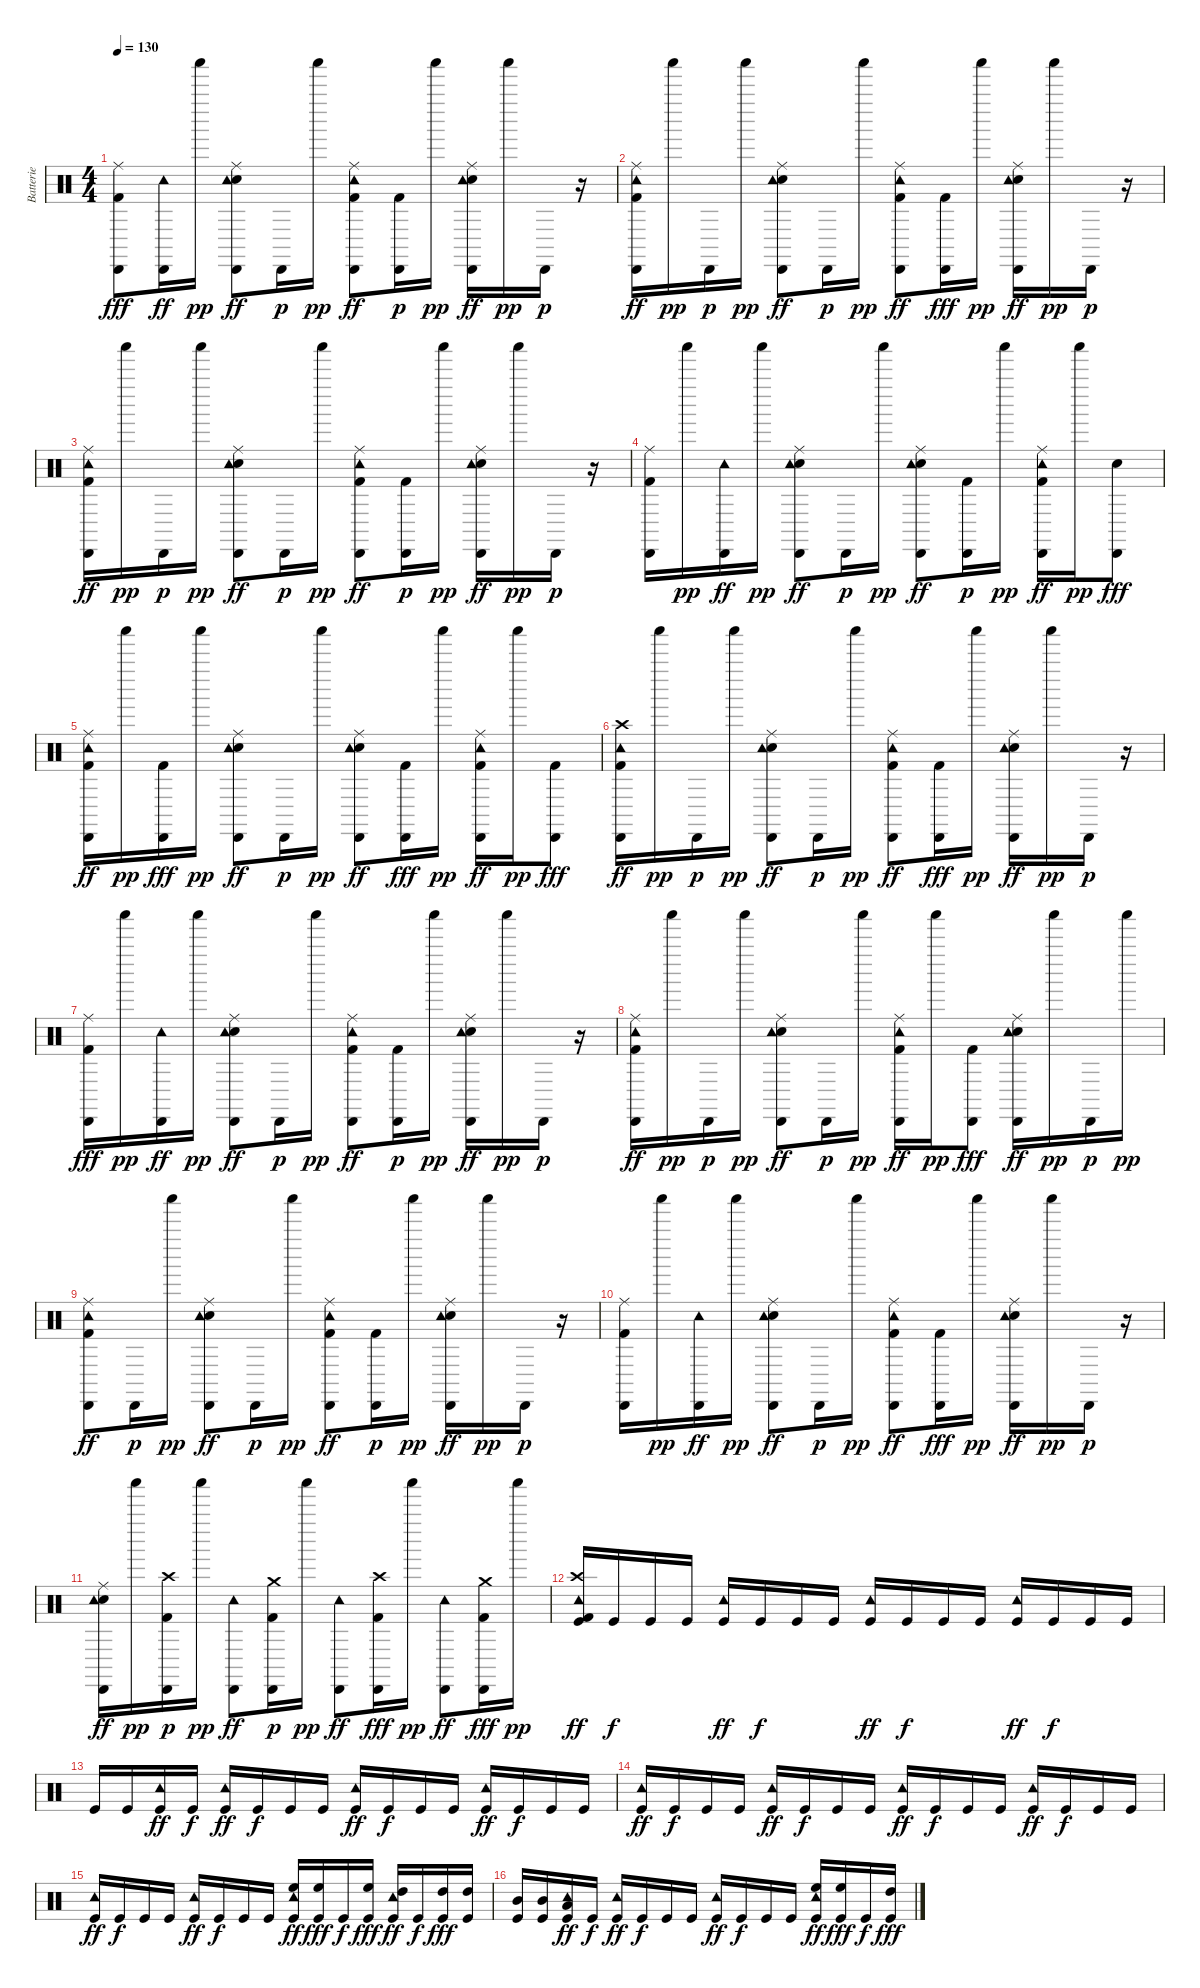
\track ("Batterie" "Batterie") {instrument percussion}
\staff {score}
\articulation defaults
\ts (4 4)
\tempo 130
\clef neutral
\ks c
("Cabasa (hit)" "Kick (hit) 2" "Ride (middle)").8{dy fff} ("Cabasa (hit)" "Tambourine (hit)").16{dy ff} "Shaker (hit)".16{dy pp} ("Ride (middle)" "Snare (hit) 2" "Cabasa (hit)" "Tambourine (hit)").8{dy ff} "Cabasa (hit)".16{dy p} "Shaker (hit)".16{dy pp} ("Ride (middle)" "Kick (hit) 2" "Cabasa (hit)" "Tambourine (hit)").8{dy ff} ("Kick (hit) 2" "Cabasa (hit)").16{dy p} "Shaker (hit)".16{dy pp} ("Snare (hit) 2" "Ride (middle)" "Cabasa (hit)" "Tambourine (hit)").16{dy ff} "Shaker (hit)".16{dy pp} "Cabasa (hit)".16{dy p} r.16 |
("Ride (middle)" "Kick (hit) 2" "Cabasa (hit)" "Tambourine (hit)").16{dy ff} "Shaker (hit)".16{dy pp} "Cabasa (hit)".16{dy p} "Shaker (hit)".16{dy pp} ("Cabasa (hit)" "Snare (hit) 2" "Ride (middle)" "Tambourine (hit)").8{dy ff} "Cabasa (hit)".16{dy p} "Shaker (hit)".16{dy pp} ("Cabasa (hit)" "Kick (hit) 2" "Ride (middle)" "Tambourine (hit)").8{dy ff} ("Cabasa (hit)" "Kick (hit) 2").16{dy fff} "Shaker (hit)".16{dy pp} ("Cabasa (hit)" "Snare (hit) 2" "Ride (middle)" "Tambourine (hit)").16{dy ff} "Shaker (hit)".16{dy pp} "Cabasa (hit)".16{dy p} r.16 |
("Kick (hit) 2" "Ride (middle)" "Cabasa (hit)" "Tambourine (hit)").16{dy ff} "Shaker (hit)".16{dy pp} "Cabasa (hit)".16{dy p} "Shaker (hit)".16{dy pp} ("Snare (hit) 2" "Ride (middle)" "Cabasa (hit)" "Tambourine (hit)").8{dy ff} "Cabasa (hit)".16{dy p} "Shaker (hit)".16{dy pp} ("Kick (hit) 2" "Ride (middle)" "Cabasa (hit)" "Tambourine (hit)").8{dy ff} ("Kick (hit) 2" "Cabasa (hit)").16{dy p} "Shaker (hit)".16{dy pp} ("Cabasa (hit)" "Snare (hit) 2" "Ride (middle)" "Tambourine (hit)").16{dy ff} "Shaker (hit)".16{dy pp} "Cabasa (hit)".16{dy p} r.16 |
("Kick (hit) 2" "Ride (middle)" "Cabasa (hit)").16 "Shaker (hit)".16{dy pp} ("Cabasa (hit)" "Tambourine (hit)").16{dy ff} "Shaker (hit)".16{dy pp} ("Cabasa (hit)" "Ride (middle)" "Snare (hit) 2" "Tambourine (hit)").8{dy ff} "Cabasa (hit)".16{dy p} "Shaker (hit)".16{dy pp} ("Snare (hit) 2" "Ride (middle)" "Cabasa (hit)" "Tambourine (hit)").8{dy ff} ("Kick (hit) 2" "Cabasa (hit)").16{dy p} "Shaker (hit)".16{dy pp} ("Cabasa (hit)" "Ride (middle)" "Kick (hit) 2" "Tambourine (hit)").16{dy ff} "Shaker (hit)".16{dy pp} ("Cabasa (hit)" "Snare (hit) 2").8{dy fff} |
("Cabasa (hit)" "Kick (hit) 2" "Ride (middle)" "Tambourine (hit)").16{dy ff} "Shaker (hit)".16{dy pp} ("Cabasa (hit)" "Kick (hit) 2").16{dy fff} "Shaker (hit)".16{dy pp} ("Cabasa (hit)" "Ride (middle)" "Snare (hit) 2" "Tambourine (hit)").8{dy ff} "Cabasa (hit)".16{dy p} "Shaker (hit)".16{dy pp} ("Ride (middle)" "Snare (hit) 2" "Cabasa (hit)" "Tambourine (hit)").8{dy ff} ("Cabasa (hit)" "Kick (hit) 2").16{dy fff} "Shaker (hit)".16{dy pp} ("Ride (middle)" "Kick (hit) 2" "Cabasa (hit)" "Tambourine (hit)").16{dy ff} "Shaker (hit)".16{dy pp} ("Cabasa (hit)" "Kick (hit) 2").8{dy fff} |
("Cabasa (hit)" "Kick (hit) 2" "Crash high (hit)" "Tambourine (hit)").16{dy ff} "Shaker (hit)".16{dy pp} "Cabasa (hit)".16{dy p} "Shaker (hit)".16{dy pp} ("Cabasa (hit)" "Snare (hit) 2" "Ride (middle)" "Tambourine (hit)").8{dy ff} "Cabasa (hit)".16{dy p} "Shaker (hit)".16{dy pp} ("Cabasa (hit)" "Kick (hit) 2" "Ride (middle)" "Tambourine (hit)").8{dy ff} ("Cabasa (hit)" "Kick (hit) 2").16{dy fff} "Shaker (hit)".16{dy pp} ("Cabasa (hit)" "Ride (middle)" "Snare (hit) 2" "Tambourine (hit)").16{dy ff} "Shaker (hit)".16{dy pp} "Cabasa (hit)".16{dy p} r.16 |
("Cabasa (hit)" "Kick (hit) 2" "Ride (middle)").16{dy fff} "Shaker (hit)".16{dy pp} ("Cabasa (hit)" "Tambourine (hit)").16{dy ff} "Shaker (hit)".16{dy pp} ("Cabasa (hit)" "Ride (middle)" "Snare (hit) 2" "Tambourine (hit)").8{dy ff} "Cabasa (hit)".16{dy p} "Shaker (hit)".16{dy pp} ("Cabasa (hit)" "Kick (hit) 2" "Ride (middle)" "Tambourine (hit)").8{dy ff} ("Kick (hit) 2" "Cabasa (hit)").16{dy p} "Shaker (hit)".16{dy pp} ("Cabasa (hit)" "Snare (hit) 2" "Ride (middle)" "Tambourine (hit)").16{dy ff} "Shaker (hit)".16{dy pp} "Cabasa (hit)".16{dy p} r.16 |
("Kick (hit) 2" "Ride (middle)" "Cabasa (hit)" "Tambourine (hit)").16{dy ff} "Shaker (hit)".16{dy pp} "Cabasa (hit)".16{dy p} "Shaker (hit)".16{dy pp} ("Ride (middle)" "Snare (hit) 2" "Cabasa (hit)" "Tambourine (hit)").8{dy ff} "Cabasa (hit)".16{dy p} "Shaker (hit)".16{dy pp} ("Cabasa (hit)" "Kick (hit) 2" "Ride (middle)" "Tambourine (hit)").16{dy ff} "Shaker (hit)".16{dy pp} ("Cabasa (hit)" "Kick (hit) 2").8{dy fff} ("Cabasa (hit)" "Snare (hit) 2" "Ride (middle)" "Tambourine (hit)").16{dy ff} "Shaker (hit)".16{dy pp} "Cabasa (hit)".16{dy p} "Shaker (hit)".16{dy pp} |
("Kick (hit) 2" "Ride (middle)" "Cabasa (hit)" "Tambourine (hit)").8{dy ff} "Cabasa (hit)".16{dy p} "Shaker (hit)".16{dy pp} ("Ride (middle)" "Snare (hit) 2" "Cabasa (hit)" "Tambourine (hit)").8{dy ff} "Cabasa (hit)".16{dy p} "Shaker (hit)".16{dy pp} ("Kick (hit) 2" "Ride (middle)" "Cabasa (hit)" "Tambourine (hit)").8{dy ff} ("Kick (hit) 2" "Cabasa (hit)").16{dy p} "Shaker (hit)".16{dy pp} ("Snare (hit) 2" "Ride (middle)" "Cabasa (hit)" "Tambourine (hit)").16{dy ff} "Shaker (hit)".16{dy pp} "Cabasa (hit)".16{dy p} r.16 |
("Ride (middle)" "Kick (hit) 2" "Cabasa (hit)").16 "Shaker (hit)".16{dy pp} ("Cabasa (hit)" "Tambourine (hit)").16{dy ff} "Shaker (hit)".16{dy pp} ("Cabasa (hit)" "Ride (middle)" "Snare (hit) 2" "Tambourine (hit)").8{dy ff} "Cabasa (hit)".16{dy p} "Shaker (hit)".16{dy pp} ("Kick (hit) 2" "Ride (middle)" "Cabasa (hit)" "Tambourine (hit)").8{dy ff} ("Cabasa (hit)" "Kick (hit) 2").16{dy fff} "Shaker (hit)".16{dy pp} ("Cabasa (hit)" "Snare (hit) 2" "Ride (middle)" "Tambourine (hit)").16{dy ff} "Shaker (hit)".16{dy pp} "Cabasa (hit)".16{dy p} r.16 |
("Cabasa (hit)" "Snare (hit) 2" "Ride (middle)" "Tambourine (hit)").16{dy ff} "Shaker (hit)".16{dy pp} ("Crash high (hit)" "Kick (hit) 2" "Cabasa (hit)").16{dy p} "Shaker (hit)".16{dy pp} ("Cabasa (hit)" "Tambourine (hit)").8{dy ff} ("Crash medium (hit)" "Kick (hit) 2" "Cabasa (hit)").16{dy p} "Shaker (hit)".16{dy pp} ("Cabasa (hit)" "Tambourine (hit)").8{dy ff} ("Cabasa (hit)" "Crash high (hit)" "Kick (hit) 2").16{dy fff} "Shaker (hit)".16{dy pp} ("Cabasa (hit)" "Tambourine (hit)").8{dy ff} ("Cabasa (hit)" "Crash medium (hit)" "Kick (hit) 2").16{dy fff} "Shaker (hit)".16{dy pp} |
("Crash high (hit)" "Kick (hit) 2" "Kick (hit)" "Tambourine (hit)").16{dy ff} "Kick (hit)".16{dy f} "Kick (hit)".16 "Kick (hit)".16 ("Kick (hit)" "Tambourine (hit)").16{dy ff} "Kick (hit)".16{dy f} "Kick (hit)".16 "Kick (hit)".16 ("Kick (hit)" "Tambourine (hit)").16{dy ff} "Kick (hit)".16{dy f} "Kick (hit)".16 "Kick (hit)".16 ("Kick (hit)" "Tambourine (hit)").16{dy ff} "Kick (hit)".16{dy f} "Kick (hit)".16 "Kick (hit)".16 |
"Kick (hit)".16 "Kick (hit)".16 ("Kick (hit)" "Tambourine (hit)").16{dy ff} "Kick (hit)".16{dy f} ("Kick (hit)" "Tambourine (hit)").16{dy ff} "Kick (hit)".16{dy f} "Kick (hit)".16 "Kick (hit)".16 ("Kick (hit)" "Tambourine (hit)").16{dy ff} "Kick (hit)".16{dy f} "Kick (hit)".16 "Kick (hit)".16 ("Kick (hit)" "Tambourine (hit)").16{dy ff} "Kick (hit)".16{dy f} "Kick (hit)".16 "Kick (hit)".16 |
("Kick (hit)" "Tambourine (hit)").16{dy ff} "Kick (hit)".16{dy f} "Kick (hit)".16 "Kick (hit)".16 ("Kick (hit)" "Tambourine (hit)").16{dy ff} "Kick (hit)".16{dy f} "Kick (hit)".16 "Kick (hit)".16 ("Kick (hit)" "Tambourine (hit)").16{dy ff} "Kick (hit)".16{dy f} "Kick (hit)".16 "Kick (hit)".16 ("Kick (hit)" "Tambourine (hit)").16{dy ff} "Kick (hit)".16{dy f} "Kick (hit)".16 "Kick (hit)".16 |
("Kick (hit)" "Tambourine (hit)").16{dy ff} "Kick (hit)".16{dy f} "Kick (hit)".16 "Kick (hit)".16 ("Kick (hit)" "Tambourine (hit)").16{dy ff} "Kick (hit)".16{dy f} "Kick (hit)".16 "Kick (hit)".16 ("Kick (hit)" "High Floor Tom (hit)" "Tambourine (hit)").16{dy ff} ("Kick (hit)" "High Floor Tom (hit)").16{dy fff} "Kick (hit)".16{dy f} ("Kick (hit)" "High Floor Tom (hit)").16{dy fff} ("High Tom (hit)" "Kick (hit)" "Tambourine (hit)").16{dy ff} "Kick (hit)".16{dy f} ("Kick (hit)" "High Tom (hit)").16{dy fff} ("High Tom (hit)" "Kick (hit)").16 |
("Mid Tom (hit)" "Kick (hit)").16 ("Mid Tom (hit)" "Kick (hit)").16 ("Kick (hit)" "Low Tom (hit)" "Tambourine (hit)").16{dy ff} "Kick (hit)".16{dy f} ("Kick (hit)" "Tambourine (hit)").16{dy ff} "Kick (hit)".16{dy f} "Kick (hit)".16 "Kick (hit)".16 ("Kick (hit)" "Tambourine (hit)").16{dy ff} "Kick (hit)".16{dy f} "Kick (hit)".16 "Kick (hit)".16 ("Kick (hit)" "High Floor Tom (hit)" "Tambourine (hit)").16{dy ff} ("Kick (hit)" "High Floor Tom (hit)").16{dy fff} "Kick (hit)".16{dy f} ("High Tom (hit)" "Kick (hit)").16{dy fff}
